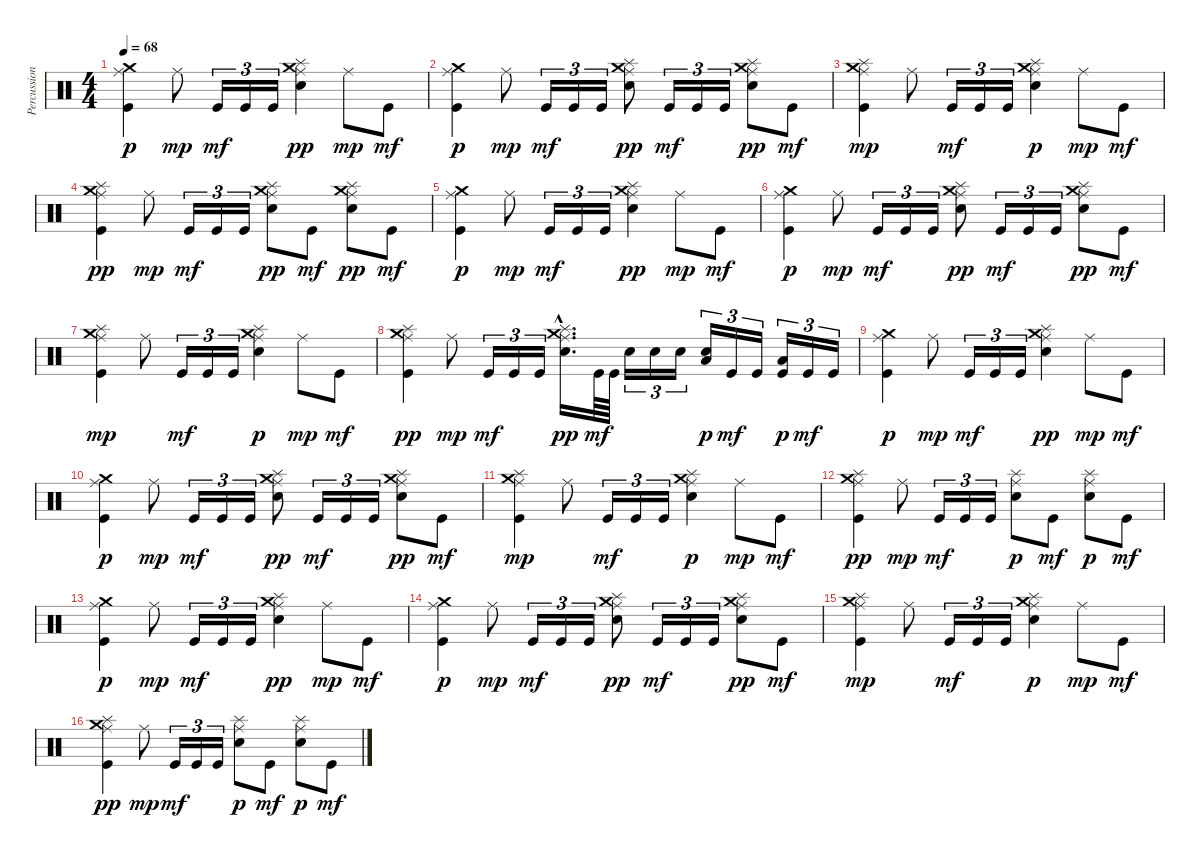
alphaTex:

\track ("Percussions" "Percussion") {instrument percussion}
\staff {score}
\articulation defaults
\ts (4 4)
\tempo 68
\clef neutral
\ks c
("Kick (hit)" "Crash medium (hit)" "Ride (middle)").4{dy p} "Ride (middle)".8{dy mp} "Kick (hit)".16{tu (3 2) dy mf} "Kick (hit)".16{tu (3 2)} "Kick (hit)".16{tu (3 2)} ("Electric Snare (hit)" "Splash (hit)" "Ride (middle)" "Crash medium (hit)").4{dy pp} "Ride (middle)".8{dy mp} "Kick (hit)".8{dy mf} |
("Kick (hit)" "Crash medium (hit)" "Ride (middle)").4{dy p} "Ride (middle)".8{dy mp} "Kick (hit)".16{tu (3 2) dy mf} "Kick (hit)".16{tu (3 2)} "Kick (hit)".16{tu (3 2)} ("Electric Snare (hit)" "Splash (hit)" "Ride (middle)" "Crash medium (hit)").8{dy pp} "Kick (hit)".16{tu (3 2) dy mf} "Kick (hit)".16{tu (3 2)} "Kick (hit)".16{tu (3 2)} ("Electric Snare (hit)" "Splash (hit)" "Ride (middle)" "Crash medium (hit)").8{dy pp} "Kick (hit)".8{dy mf} |
("Kick (hit)" "Crash medium (hit)" "Ride (middle)" "Splash (hit)").4{dy mp} "Ride (middle)".8 "Kick (hit)".16{tu (3 2) dy mf} "Kick (hit)".16{tu (3 2)} "Kick (hit)".16{tu (3 2)} ("Electric Snare (hit)" "Splash (hit)" "Ride (middle)" "Crash medium (hit)").4{dy p} "Ride (middle)".8{dy mp} "Kick (hit)".8{dy mf} |
("Kick (hit)" "Splash (hit)" "Ride (middle)" "Crash medium (hit)").4{dy pp} "Ride (middle)".8{dy mp} "Kick (hit)".16{tu (3 2) dy mf} "Kick (hit)".16{tu (3 2)} "Kick (hit)".16{tu (3 2)} ("Electric Snare (hit)" "Splash (hit)" "Ride (middle)" "Crash medium (hit)").8{dy pp} "Kick (hit)".8{dy mf} ("Electric Snare (hit)" "Splash (hit)" "Ride (middle)" "Crash medium (hit)").8{dy pp} "Kick (hit)".8{dy mf} |
("Kick (hit)" "Crash medium (hit)" "Ride (middle)").4{dy p} "Ride (middle)".8{dy mp} "Kick (hit)".16{tu (3 2) dy mf} "Kick (hit)".16{tu (3 2)} "Kick (hit)".16{tu (3 2)} ("Electric Snare (hit)" "Splash (hit)" "Ride (middle)" "Crash medium (hit)").4{dy pp} "Ride (middle)".8{dy mp} "Kick (hit)".8{dy mf} |
("Kick (hit)" "Crash medium (hit)" "Ride (middle)").4{dy p} "Ride (middle)".8{dy mp} "Kick (hit)".16{tu (3 2) dy mf} "Kick (hit)".16{tu (3 2)} "Kick (hit)".16{tu (3 2)} ("Electric Snare (hit)" "Splash (hit)" "Ride (middle)" "Crash medium (hit)").8{dy pp} "Kick (hit)".16{tu (3 2) dy mf} "Kick (hit)".16{tu (3 2)} "Kick (hit)".16{tu (3 2)} ("Electric Snare (hit)" "Splash (hit)" "Ride (middle)" "Crash medium (hit)").8{dy pp} "Kick (hit)".8{dy mf} |
("Kick (hit)" "Crash medium (hit)" "Ride (middle)" "Splash (hit)").4{dy mp} "Ride (middle)".8 "Kick (hit)".16{tu (3 2) dy mf} "Kick (hit)".16{tu (3 2)} "Kick (hit)".16{tu (3 2)} ("Electric Snare (hit)" "Splash (hit)" "Ride (middle)" "Crash medium (hit)").4{dy p} "Ride (middle)".8{dy mp} "Kick (hit)".8{dy mf} |
("Kick (hit)" "Splash (hit)" "Ride (middle)" "Crash medium (hit)").4{dy pp} "Ride (middle)".8{dy mp} "Kick (hit)".16{tu (3 2) dy mf} "Kick (hit)".16{tu (3 2)} "Kick (hit)".16{tu (3 2)} ("Electric Snare (hit)"{hac} "Splash (hit)"{hac} "Ride (middle)"{hac} "Crash medium (hit)"{hac}).16{d dy pp} "Kick (hit)".64{dy mf} "Kick (hit)".64 "Electric Snare (hit)".16{tu (3 2)} "Electric Snare (hit)".16{tu (3 2)} "Electric Snare (hit)".16{tu (3 2)} ("Electric Snare (hit)" "Low Tom (hit)").16{tu (3 2) dy p} "Kick (hit)".16{tu (3 2) dy mf} "Kick (hit)".16{tu (3 2)} ("Kick (hit)" "Low Floor Tom (hit)").16{tu (3 2) dy p} "Kick (hit)".16{tu (3 2) dy mf} "Kick (hit)".16{tu (3 2)} |
("Kick (hit)" "Crash medium (hit)" "Ride (middle)").4{dy p} "Ride (middle)".8{dy mp} "Kick (hit)".16{tu (3 2) dy mf} "Kick (hit)".16{tu (3 2)} "Kick (hit)".16{tu (3 2)} ("Electric Snare (hit)" "Splash (hit)" "Ride (middle)" "Crash medium (hit)").4{dy pp} "Ride (middle)".8{dy mp} "Kick (hit)".8{dy mf} |
("Kick (hit)" "Crash medium (hit)" "Ride (middle)").4{dy p} "Ride (middle)".8{dy mp} "Kick (hit)".16{tu (3 2) dy mf} "Kick (hit)".16{tu (3 2)} "Kick (hit)".16{tu (3 2)} ("Electric Snare (hit)" "Splash (hit)" "Ride (middle)" "Crash medium (hit)").8{dy pp} "Kick (hit)".16{tu (3 2) dy mf} "Kick (hit)".16{tu (3 2)} "Kick (hit)".16{tu (3 2)} ("Electric Snare (hit)" "Splash (hit)" "Ride (middle)" "Crash medium (hit)").8{dy pp} "Kick (hit)".8{dy mf} |
("Kick (hit)" "Crash medium (hit)" "Ride (middle)" "Splash (hit)").4{dy mp} "Ride (middle)".8 "Kick (hit)".16{tu (3 2) dy mf} "Kick (hit)".16{tu (3 2)} "Kick (hit)".16{tu (3 2)} ("Electric Snare (hit)" "Splash (hit)" "Ride (middle)" "Crash medium (hit)").4{dy p} "Ride (middle)".8{dy mp} "Kick (hit)".8{dy mf} |
("Kick (hit)" "Splash (hit)" "Ride (middle)" "Crash medium (hit)").4{dy pp} "Ride (middle)".8{dy mp} "Kick (hit)".16{tu (3 2) dy mf} "Kick (hit)".16{tu (3 2)} "Kick (hit)".16{tu (3 2)} ("Electric Snare (hit)" "Splash (hit)" "Ride (middle)").8{dy p} "Kick (hit)".8{dy mf} ("Electric Snare (hit)" "Splash (hit)" "Ride (middle)").8{dy p} "Kick (hit)".8{dy mf} |
("Kick (hit)" "Crash medium (hit)" "Ride (middle)").4{dy p} "Ride (middle)".8{dy mp} "Kick (hit)".16{tu (3 2) dy mf} "Kick (hit)".16{tu (3 2)} "Kick (hit)".16{tu (3 2)} ("Electric Snare (hit)" "Splash (hit)" "Ride (middle)" "Crash medium (hit)").4{dy pp} "Ride (middle)".8{dy mp} "Kick (hit)".8{dy mf} |
("Kick (hit)" "Crash medium (hit)" "Ride (middle)").4{dy p} "Ride (middle)".8{dy mp} "Kick (hit)".16{tu (3 2) dy mf} "Kick (hit)".16{tu (3 2)} "Kick (hit)".16{tu (3 2)} ("Electric Snare (hit)" "Splash (hit)" "Ride (middle)" "Crash medium (hit)").8{dy pp} "Kick (hit)".16{tu (3 2) dy mf} "Kick (hit)".16{tu (3 2)} "Kick (hit)".16{tu (3 2)} ("Electric Snare (hit)" "Splash (hit)" "Ride (middle)" "Crash medium (hit)").8{dy pp} "Kick (hit)".8{dy mf} |
("Kick (hit)" "Crash medium (hit)" "Ride (middle)" "Splash (hit)").4{dy mp} "Ride (middle)".8 "Kick (hit)".16{tu (3 2) dy mf} "Kick (hit)".16{tu (3 2)} "Kick (hit)".16{tu (3 2)} ("Electric Snare (hit)" "Splash (hit)" "Ride (middle)" "Crash medium (hit)").4{dy p} "Ride (middle)".8{dy mp} "Kick (hit)".8{dy mf} |
("Kick (hit)" "Splash (hit)" "Ride (middle)" "Crash medium (hit)").4{dy pp} "Ride (middle)".8{dy mp} "Kick (hit)".16{tu (3 2) dy mf} "Kick (hit)".16{tu (3 2)} "Kick (hit)".16{tu (3 2)} ("Electric Snare (hit)" "Splash (hit)" "Ride (middle)").8{dy p} "Kick (hit)".8{dy mf} ("Electric Snare (hit)" "Splash (hit)" "Ride (middle)").8{dy p} "Kick (hit)".8{dy mf}
